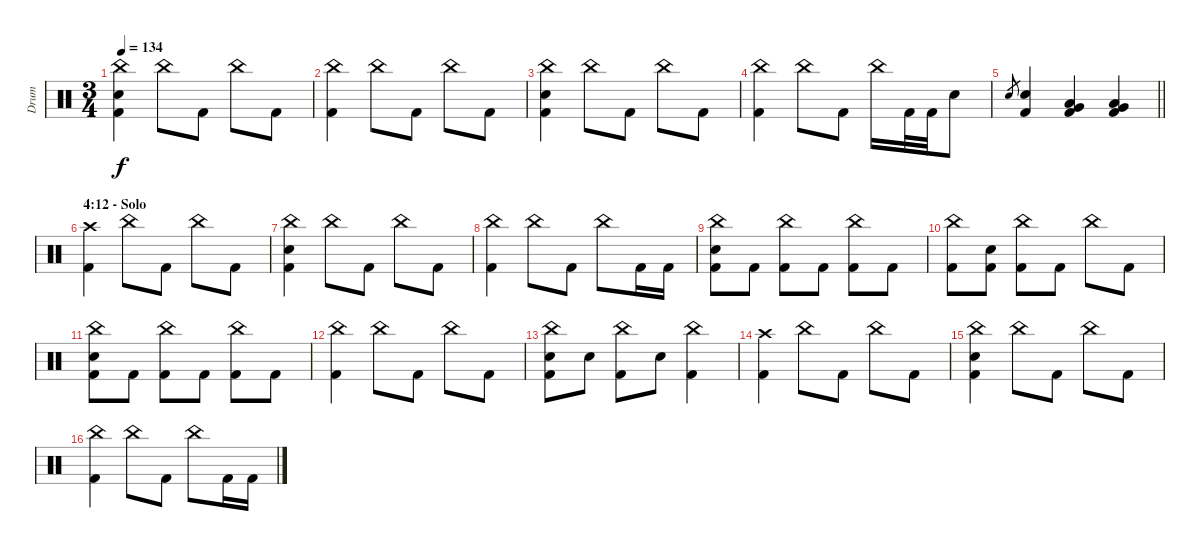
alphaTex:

\track ("Drum" "Drum") {instrument percussion}
\staff {score}
\articulation defaults
\ts (3 4)
\tempo 134
\clef neutral
\ks c
("China (hit)" "Electric Snare (hit)" "Kick (hit) 2").4{dy f} "China (hit)".8 "Kick (hit) 2".8 "China (hit)".8 "Kick (hit) 2".8 |
("China (hit)" "Kick (hit) 2").4 "China (hit)".8 "Kick (hit) 2".8 "China (hit)".8 "Kick (hit) 2".8 |
("China (hit)" "Electric Snare (hit)" "Kick (hit) 2").4 "China (hit)".8 "Kick (hit) 2".8 "China (hit)".8 "Kick (hit) 2".8 |
("China (hit)" "Kick (hit) 2").4 "China (hit)".8 "Kick (hit) 2".8 "China (hit)".16 "Kick (hit) 2".32 "Kick (hit) 2".32 "Electric Snare (hit)".8 |
\barLineRight lightlight "Electric Snare (hit)".8{gr}
("Electric Snare (hit)" "Kick (hit) 2").4 ("Very Low Tom (hit)" "Low Tom (hit)" "Kick (hit) 2").4 ("Very Low Tom (hit)" "Low Tom (hit)" "Kick (hit) 2").4 |
\section ("" "4:12 - Solo")
("Crash high (hit)" "Kick (hit) 2").4{volume 9} "China (hit)".8 "Kick (hit) 2".8 "China (hit)".8 "Kick (hit) 2".8 |
("China (hit)" "Electric Snare (hit)" "Kick (hit) 2").4 "China (hit)".8 "Kick (hit) 2".8 "China (hit)".8 "Kick (hit) 2".8 |
("China (hit)" "Kick (hit) 2").4 "China (hit)".8 "Kick (hit) 2".8 "China (hit)".8 "Kick (hit) 2".16 "Kick (hit) 2".16 |
("China (hit)" "Electric Snare (hit)" "Kick (hit) 2").8 "Kick (hit) 2".8 ("China (hit)" "Kick (hit) 2").8 "Kick (hit) 2".8 ("China (hit)" "Kick (hit) 2").8 "Kick (hit) 2".8 |
("China (hit)" "Kick (hit) 2").8 ("Electric Snare (hit)" "Kick (hit) 2").8 ("China (hit)" "Kick (hit) 2").8 "Kick (hit) 2".8 "China (hit)".8 "Kick (hit) 2".8 |
("China (hit)" "Electric Snare (hit)" "Kick (hit) 2").8 "Kick (hit) 2".8 ("China (hit)" "Kick (hit) 2").8 "Kick (hit) 2".8 ("China (hit)" "Kick (hit) 2").8 "Kick (hit) 2".8 |
("China (hit)" "Kick (hit) 2").4 "China (hit)".8 "Kick (hit) 2".8 "China (hit)".8 "Kick (hit) 2".8 |
("China (hit)" "Electric Snare (hit)" "Kick (hit) 2").8 "Electric Snare (hit)".8 ("China (hit)" "Kick (hit) 2").8 "Electric Snare (hit)".8 ("China (hit)" "Kick (hit) 2").4 |
("Crash high (hit)" "Kick (hit) 2").4 "China (hit)".8 "Kick (hit) 2".8 "China (hit)".8 "Kick (hit) 2".8 |
("China (hit)" "Electric Snare (hit)" "Kick (hit) 2").4 "China (hit)".8 "Kick (hit) 2".8 "China (hit)".8 "Kick (hit) 2".8 |
("China (hit)" "Kick (hit) 2").4 "China (hit)".8 "Kick (hit) 2".8 "China (hit)".8 "Kick (hit) 2".16 "Kick (hit) 2".16
